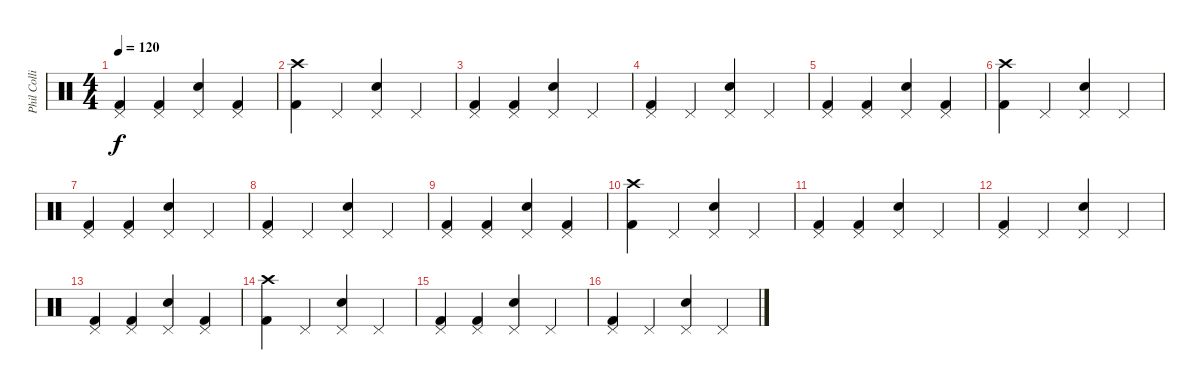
\track ("Phil Collins" "Phil Colli") {instrument percussion}
\staff {score}
\articulation defaults
\ts (4 4)
\tempo 120
\clef neutral
\ks c
("Pedal Hi-Hat (hit)" "Kick (hit) 2").4{dy f} ("Pedal Hi-Hat (hit)" "Kick (hit) 2").4 ("Pedal Hi-Hat (hit)" "Snare (hit) 2").4 ("Pedal Hi-Hat (hit)" "Kick (hit) 2").4 |
("Crash high (hit)" "Kick (hit) 2").4 "Pedal Hi-Hat (hit)".4 ("Pedal Hi-Hat (hit)" "Snare (hit) 2").4 "Pedal Hi-Hat (hit)".4 |
("Pedal Hi-Hat (hit)" "Kick (hit) 2").4 ("Pedal Hi-Hat (hit)" "Kick (hit) 2").4 ("Pedal Hi-Hat (hit)" "Snare (hit) 2").4 "Pedal Hi-Hat (hit)".4 |
("Pedal Hi-Hat (hit)" "Kick (hit) 2").4 "Pedal Hi-Hat (hit)".4 ("Pedal Hi-Hat (hit)" "Snare (hit) 2").4 "Pedal Hi-Hat (hit)".4 |
("Pedal Hi-Hat (hit)" "Kick (hit) 2").4 ("Pedal Hi-Hat (hit)" "Kick (hit) 2").4 ("Pedal Hi-Hat (hit)" "Snare (hit) 2").4 ("Pedal Hi-Hat (hit)" "Kick (hit) 2").4 |
("Crash high (hit)" "Kick (hit) 2").4 "Pedal Hi-Hat (hit)".4 ("Pedal Hi-Hat (hit)" "Snare (hit) 2").4 "Pedal Hi-Hat (hit)".4 |
("Pedal Hi-Hat (hit)" "Kick (hit) 2").4 ("Pedal Hi-Hat (hit)" "Kick (hit) 2").4 ("Pedal Hi-Hat (hit)" "Snare (hit) 2").4 "Pedal Hi-Hat (hit)".4 |
("Pedal Hi-Hat (hit)" "Kick (hit) 2").4 "Pedal Hi-Hat (hit)".4 ("Pedal Hi-Hat (hit)" "Snare (hit) 2").4 "Pedal Hi-Hat (hit)".4 |
("Pedal Hi-Hat (hit)" "Kick (hit) 2").4 ("Pedal Hi-Hat (hit)" "Kick (hit) 2").4 ("Pedal Hi-Hat (hit)" "Snare (hit) 2").4 ("Pedal Hi-Hat (hit)" "Kick (hit) 2").4 |
("Crash high (hit)" "Kick (hit) 2").4 "Pedal Hi-Hat (hit)".4 ("Pedal Hi-Hat (hit)" "Snare (hit) 2").4 "Pedal Hi-Hat (hit)".4 |
("Pedal Hi-Hat (hit)" "Kick (hit) 2").4 ("Pedal Hi-Hat (hit)" "Kick (hit) 2").4 ("Pedal Hi-Hat (hit)" "Snare (hit) 2").4 "Pedal Hi-Hat (hit)".4 |
("Pedal Hi-Hat (hit)" "Kick (hit) 2").4 "Pedal Hi-Hat (hit)".4 ("Pedal Hi-Hat (hit)" "Snare (hit) 2").4 "Pedal Hi-Hat (hit)".4 |
("Pedal Hi-Hat (hit)" "Kick (hit) 2").4 ("Pedal Hi-Hat (hit)" "Kick (hit) 2").4 ("Pedal Hi-Hat (hit)" "Snare (hit) 2").4 ("Pedal Hi-Hat (hit)" "Kick (hit) 2").4 |
("Crash high (hit)" "Kick (hit) 2").4 "Pedal Hi-Hat (hit)".4 ("Pedal Hi-Hat (hit)" "Snare (hit) 2").4 "Pedal Hi-Hat (hit)".4 |
("Pedal Hi-Hat (hit)" "Kick (hit) 2").4 ("Pedal Hi-Hat (hit)" "Kick (hit) 2").4 ("Pedal Hi-Hat (hit)" "Snare (hit) 2").4 "Pedal Hi-Hat (hit)".4 |
("Pedal Hi-Hat (hit)" "Kick (hit) 2").4 "Pedal Hi-Hat (hit)".4 ("Pedal Hi-Hat (hit)" "Snare (hit) 2").4 "Pedal Hi-Hat (hit)".4
